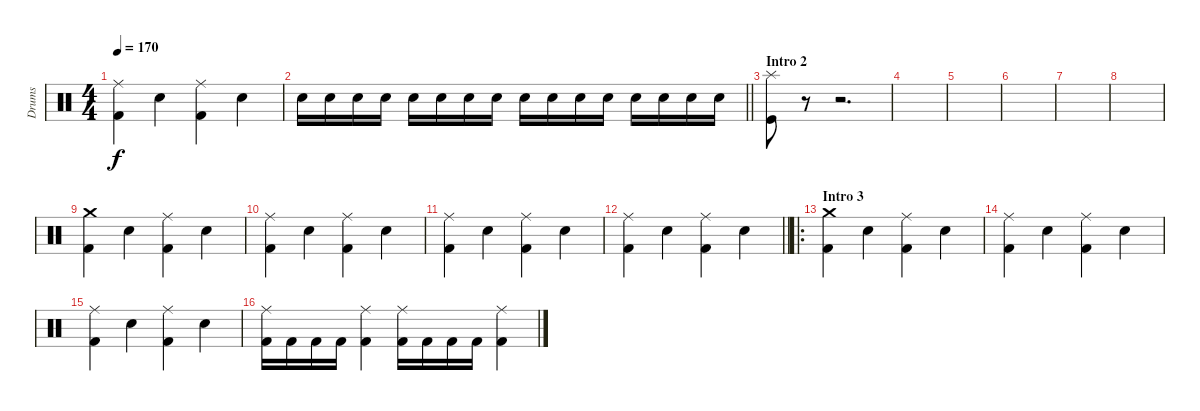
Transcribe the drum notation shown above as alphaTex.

\track ("Drums" "Drums") {instrument percussion}
\staff {score}
\articulation defaults
\ts (4 4)
\tempo 170
\clef neutral
\ks c
("Ride (middle)" "Kick (hit) 2").4{dy f} "Electric Snare (hit)".4 ("Ride (middle)" "Kick (hit) 2").4 "Electric Snare (hit)".4 |
\barLineRight lightlight "Snare (hit) 2".16 "Snare (hit) 2".16 "Snare (hit) 2".16 "Snare (hit) 2".16 "Snare (hit) 2".16 "Snare (hit) 2".16 "Snare (hit) 2".16 "Snare (hit) 2".16 "Snare (hit) 2".16 "Snare (hit) 2".16 "Snare (hit) 2".16 "Snare (hit) 2".16 "Snare (hit) 2".16 "Snare (hit) 2".16 "Snare (hit) 2".16 "Snare (hit) 2".16
|
\section ("" "Intro 2")
("Kick (hit)" "Splash (hit)").8 r.8 r.2{d} |
|
|
|
|
|
("Crash medium (hit)" "Kick (hit) 2").4 "Electric Snare (hit)".4 ("Ride (middle)" "Kick (hit) 2").4 "Electric Snare (hit)".4 |
("Ride (middle)" "Kick (hit) 2").4 "Electric Snare (hit)".4 ("Ride (middle)" "Kick (hit) 2").4 "Electric Snare (hit)".4 |
("Ride (middle)" "Kick (hit) 2").4 "Electric Snare (hit)".4 ("Ride (middle)" "Kick (hit) 2").4 "Electric Snare (hit)".4 |
\barLineRight lightlight
("Ride (middle)" "Kick (hit) 2").4 "Electric Snare (hit)".4 ("Ride (middle)" "Kick (hit) 2").4 "Electric Snare (hit)".4 |
\ro
\section ("" "Intro 3")
("Crash medium (hit)" "Kick (hit) 2").4 "Electric Snare (hit)".4 ("Ride (middle)" "Kick (hit) 2").4 "Electric Snare (hit)".4 |
("Ride (middle)" "Kick (hit) 2").4 "Electric Snare (hit)".4 ("Ride (middle)" "Kick (hit) 2").4 "Electric Snare (hit)".4 |
("Ride (middle)" "Kick (hit) 2").4 "Electric Snare (hit)".4 ("Ride (middle)" "Kick (hit) 2").4 "Electric Snare (hit)".4 |
("Ride (middle)" "Kick (hit) 2").16 "Kick (hit) 2".16 "Kick (hit) 2".16 "Kick (hit) 2".16 ("Ride (middle)" "Kick (hit) 2").4 ("Ride (middle)" "Kick (hit) 2").16 "Kick (hit) 2".16 "Kick (hit) 2".16 "Kick (hit) 2".16 ("Ride (middle)" "Kick (hit) 2").4
